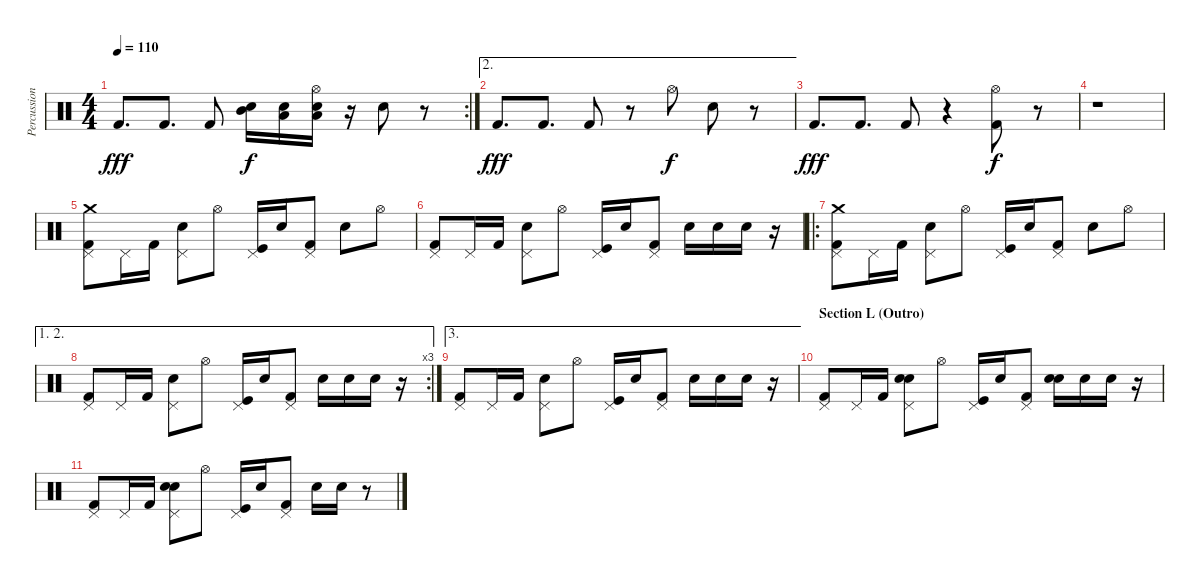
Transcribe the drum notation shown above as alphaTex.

\track ("Percussions" "Percussion") {instrument percussion}
\staff {score}
\articulation defaults
\rc 2
\ts (4 4)
\tempo 110
\clef neutral
\ks c "Kick (hit) 2".8{d dy fff} "Kick (hit) 2".8{d} "Kick (hit) 2".8
("Mid Tom (hit)" "Electric Snare (hit)").16{dy f} ("Low Tom (hit)" "Electric Snare (hit)").16 ("Low Floor Tom (hit)" "Electric Snare (hit)" "Hi-Hat (open)").16 r.16 "Electric Snare (hit)".8 r.8 |
\ae 2 "Kick (hit) 2".8{d dy fff} "Kick (hit) 2".8{d} "Kick (hit) 2".8
r.8 "Hi-Hat (open)".8{dy f} "Electric Snare (hit)".8 r.8 |
"Kick (hit) 2".8{d dy fff} "Kick (hit) 2".8{d} "Kick (hit) 2".8 r.4 ("Hi-Hat (open)" "Kick (hit) 2").8{dy f} r.8 |
r.1 |
("Kick (hit) 2" "Pedal Hi-Hat (hit)" "Crash medium (hit)").8 "Pedal Hi-Hat (hit)".16 "Kick (hit) 2".16 ("Electric Snare (hit)" "Pedal Hi-Hat (hit)").8 "Hi-Hat (open)".8 ("Kick (hit)" "Pedal Hi-Hat (hit)").16 "Electric Snare (hit)".16 ("Kick (hit) 2" "Pedal Hi-Hat (hit)").8 "Electric Snare (hit)".8 "Hi-Hat (open)".8 |
("Kick (hit) 2" "Pedal Hi-Hat (hit)").8 "Pedal Hi-Hat (hit)".16 "Kick (hit) 2".16 ("Electric Snare (hit)" "Pedal Hi-Hat (hit)").8 "Hi-Hat (open)".8 ("Kick (hit)" "Pedal Hi-Hat (hit)").16 "Electric Snare (hit)".16 ("Kick (hit) 2" "Pedal Hi-Hat (hit)").8 "Electric Snare (hit)".16 "Electric Snare (hit)".16 "Electric Snare (hit)".16 r.16 |
\ro
("Kick (hit) 2" "Pedal Hi-Hat (hit)" "Crash medium (hit)").8 "Pedal Hi-Hat (hit)".16 "Kick (hit) 2".16 ("Electric Snare (hit)" "Pedal Hi-Hat (hit)").8 "Hi-Hat (open)".8 ("Kick (hit)" "Pedal Hi-Hat (hit)").16 "Electric Snare (hit)".16 ("Kick (hit) 2" "Pedal Hi-Hat (hit)").8 "Electric Snare (hit)".8 "Hi-Hat (open)".8 |
\ae (1 2)
\rc 3
("Kick (hit) 2" "Pedal Hi-Hat (hit)").8 "Pedal Hi-Hat (hit)".16 "Kick (hit) 2".16 ("Electric Snare (hit)" "Pedal Hi-Hat (hit)").8 "Hi-Hat (open)".8 ("Kick (hit)" "Pedal Hi-Hat (hit)").16 "Electric Snare (hit)".16 ("Kick (hit) 2" "Pedal Hi-Hat (hit)").8 "Electric Snare (hit)".16 "Electric Snare (hit)".16 "Electric Snare (hit)".16 r.16 |
\ae 3
("Kick (hit) 2" "Pedal Hi-Hat (hit)").8 "Pedal Hi-Hat (hit)".16 "Kick (hit) 2".16 ("Electric Snare (hit)" "Pedal Hi-Hat (hit)").8 "Hi-Hat (open)".8 ("Kick (hit)" "Pedal Hi-Hat (hit)").16 "Electric Snare (hit)".16 ("Kick (hit) 2" "Pedal Hi-Hat (hit)").8 "Electric Snare (hit)".16 "Electric Snare (hit)".16 "Electric Snare (hit)".16 r.16 |
\section ("" "Section L (Outro)")
("Kick (hit) 2" "Pedal Hi-Hat (hit)").8 "Pedal Hi-Hat (hit)".16 "Kick (hit) 2".16 ("Electric Snare (hit)" "Pedal Hi-Hat (hit)" "Hand Clap (hit)").8 "Hi-Hat (open)".8 ("Kick (hit)" "Pedal Hi-Hat (hit)").16 "Electric Snare (hit)".16 ("Kick (hit) 2" "Pedal Hi-Hat (hit)").8 ("Electric Snare (hit)" "Hand Clap (hit)").16 "Electric Snare (hit)".16 "Electric Snare (hit)".16 r.16 |
("Kick (hit) 2" "Pedal Hi-Hat (hit)").8 "Pedal Hi-Hat (hit)".16 "Kick (hit) 2".16 ("Electric Snare (hit)" "Pedal Hi-Hat (hit)" "Hand Clap (hit)").8 "Hi-Hat (open)".8 ("Kick (hit)" "Pedal Hi-Hat (hit)").16 "Electric Snare (hit)".16 ("Kick (hit) 2" "Pedal Hi-Hat (hit)").8 "Electric Snare (hit)".16 "Electric Snare (hit)".16 r.8
